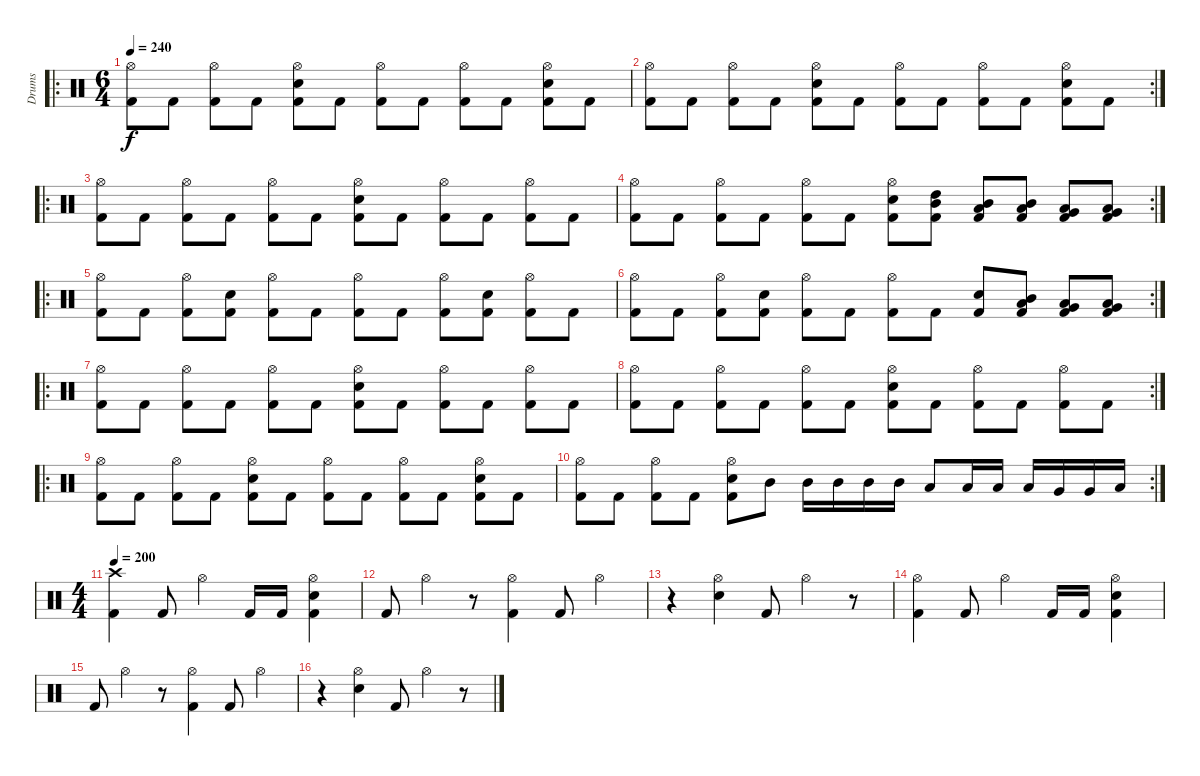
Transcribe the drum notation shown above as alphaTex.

\track ("Drums" "Drums") {instrument percussion}
\staff {score}
\articulation defaults
\ro
\ts (6 4)
\tempo 240
\clef neutral
\ks c
("Hi-Hat (open)" "Kick (hit) 2").8{dy f} "Kick (hit) 2".8 ("Hi-Hat (open)" "Kick (hit) 2").8 "Kick (hit) 2".8 ("Hi-Hat (open)" "Snare (hit) 2" "Kick (hit) 2").8 "Kick (hit) 2".8 ("Hi-Hat (open)" "Kick (hit) 2").8 "Kick (hit) 2".8 ("Hi-Hat (open)" "Kick (hit) 2").8 "Kick (hit) 2".8 ("Hi-Hat (open)" "Snare (hit) 2" "Kick (hit) 2").8 "Kick (hit) 2".8 |
\rc 2
("Hi-Hat (open)" "Kick (hit) 2").8 "Kick (hit) 2".8 ("Hi-Hat (open)" "Kick (hit) 2").8 "Kick (hit) 2".8 ("Hi-Hat (open)" "Snare (hit) 2" "Kick (hit) 2").8 "Kick (hit) 2".8 ("Hi-Hat (open)" "Kick (hit) 2").8 "Kick (hit) 2".8 ("Hi-Hat (open)" "Kick (hit) 2").8 "Kick (hit) 2".8 ("Hi-Hat (open)" "Snare (hit) 2" "Kick (hit) 2").8 "Kick (hit) 2".8 |
\ro
("Hi-Hat (open)" "Kick (hit) 2").8 "Kick (hit) 2".8 ("Hi-Hat (open)" "Kick (hit) 2").8 "Kick (hit) 2".8 ("Hi-Hat (open)" "Kick (hit) 2").8 "Kick (hit) 2".8 ("Hi-Hat (open)" "Snare (hit) 2" "Kick (hit) 2").8 "Kick (hit) 2".8 ("Hi-Hat (open)" "Kick (hit) 2").8 "Kick (hit) 2".8 ("Hi-Hat (open)" "Kick (hit) 2").8 "Kick (hit) 2".8 |
\rc 2
("Hi-Hat (open)" "Kick (hit) 2").8 "Kick (hit) 2".8 ("Hi-Hat (open)" "Kick (hit) 2").8 "Kick (hit) 2".8 ("Hi-Hat (open)" "Kick (hit) 2").8 "Kick (hit) 2".8 ("Hi-Hat (open)" "Snare (hit) 2" "Kick (hit) 2").8 ("High Tom (hit)" "Mid Tom (hit)" "Kick (hit) 2").8 ("Mid Tom (hit)" "Low Tom (hit)" "Kick (hit) 2").8 ("Mid Tom (hit)" "Low Tom (hit)" "Kick (hit) 2").8 ("Low Tom (hit)" "Very Low Tom (hit)" "Kick (hit) 2").8 ("Low Tom (hit)" "Very Low Tom (hit)" "Kick (hit) 2").8 |
\ro
("Hi-Hat (open)" "Kick (hit) 2").8 "Kick (hit) 2".8 ("Hi-Hat (open)" "Kick (hit) 2").8 ("Snare (hit) 2" "Kick (hit) 2").8 ("Hi-Hat (open)" "Kick (hit) 2").8 "Kick (hit) 2".8 ("Hi-Hat (open)" "Kick (hit) 2").8 "Kick (hit) 2".8 ("Hi-Hat (open)" "Kick (hit) 2").8 ("Snare (hit) 2" "Kick (hit) 2").8 ("Hi-Hat (open)" "Kick (hit) 2").8 "Kick (hit) 2".8 |
\rc 2
("Hi-Hat (open)" "Kick (hit) 2").8 "Kick (hit) 2".8 ("Hi-Hat (open)" "Kick (hit) 2").8 ("Snare (hit) 2" "Kick (hit) 2").8 ("Hi-Hat (open)" "Kick (hit) 2").8 "Kick (hit) 2".8 ("Hi-Hat (open)" "Kick (hit) 2").8 "Kick (hit) 2".8 ("Snare (hit) 2" "Kick (hit) 2").8 ("Mid Tom (hit)" "Low Tom (hit)" "Kick (hit) 2").8 ("Low Tom (hit)" "Very Low Tom (hit)" "Kick (hit) 2").8 ("Very Low Tom (hit)" "Low Floor Tom (hit)" "Kick (hit) 2").8 |
\ro
("Hi-Hat (open)" "Kick (hit) 2").8 "Kick (hit) 2".8 ("Hi-Hat (open)" "Kick (hit) 2").8 "Kick (hit) 2".8 ("Hi-Hat (open)" "Kick (hit) 2").8 "Kick (hit) 2".8 ("Hi-Hat (open)" "Snare (hit) 2" "Kick (hit) 2").8 "Kick (hit) 2".8 ("Hi-Hat (open)" "Kick (hit) 2").8 "Kick (hit) 2".8 ("Hi-Hat (open)" "Kick (hit) 2").8 "Kick (hit) 2".8 |
\rc 2
("Hi-Hat (open)" "Kick (hit) 2").8 "Kick (hit) 2".8 ("Hi-Hat (open)" "Kick (hit) 2").8 "Kick (hit) 2".8 ("Hi-Hat (open)" "Kick (hit) 2").8 "Kick (hit) 2".8 ("Hi-Hat (open)" "Snare (hit) 2" "Kick (hit) 2").8 "Kick (hit) 2".8 ("Hi-Hat (open)" "Kick (hit) 2").8 "Kick (hit) 2".8 ("Hi-Hat (open)" "Kick (hit) 2").8 "Kick (hit) 2".8 |
\ro
("Hi-Hat (open)" "Kick (hit) 2").8 "Kick (hit) 2".8 ("Hi-Hat (open)" "Kick (hit) 2").8 "Kick (hit) 2".8 ("Hi-Hat (open)" "Snare (hit) 2" "Kick (hit) 2").8 "Kick (hit) 2".8 ("Hi-Hat (open)" "Kick (hit) 2").8 "Kick (hit) 2".8 ("Hi-Hat (open)" "Kick (hit) 2").8 "Kick (hit) 2".8 ("Hi-Hat (open)" "Snare (hit) 2" "Kick (hit) 2").8 "Kick (hit) 2".8 |
\rc 2
("Hi-Hat (open)" "Kick (hit) 2").8 "Kick (hit) 2".8 ("Hi-Hat (open)" "Kick (hit) 2").8 "Kick (hit) 2".8 ("Hi-Hat (open)" "Snare (hit) 2" "Kick (hit) 2").8 "Mid Tom (hit)".8 "Mid Tom (hit)".16 "Mid Tom (hit)".16 "Mid Tom (hit)".16 "Mid Tom (hit)".16 "Low Tom (hit)".8 "Low Tom (hit)".16 "Low Tom (hit)".16 "Low Tom (hit)".16 "Very Low Tom (hit)".16 "Very Low Tom (hit)".16 "Low Floor Tom (hit)".16 |
\ts (4 4)
\tempo 200
("Crash high (hit)" "Kick (hit) 2").4 "Kick (hit) 2".8 "Hi-Hat (open)".4 "Kick (hit) 2".16 "Kick (hit) 2".16 ("Hi-Hat (open)" "Snare (hit) 2" "Kick (hit) 2").4 |
"Kick (hit) 2".8 "Hi-Hat (open)".4 r.8 ("Hi-Hat (open)" "Kick (hit) 2").4 "Kick (hit) 2".8 "Hi-Hat (open)".4 |
r.4 ("Hi-Hat (open)" "Snare (hit) 2").4 "Kick (hit) 2".8 "Hi-Hat (open)".4 r.8 |
("Hi-Hat (open)" "Kick (hit) 2").4 "Kick (hit) 2".8 "Hi-Hat (open)".4 "Kick (hit) 2".16 "Kick (hit) 2".16 ("Hi-Hat (open)" "Snare (hit) 2" "Kick (hit) 2").4 |
"Kick (hit) 2".8 "Hi-Hat (open)".4 r.8 ("Hi-Hat (open)" "Kick (hit) 2").4 "Kick (hit) 2".8 "Hi-Hat (open)".4 |
r.4 ("Hi-Hat (open)" "Snare (hit) 2").4 "Kick (hit) 2".8 "Hi-Hat (open)".4 r.8
